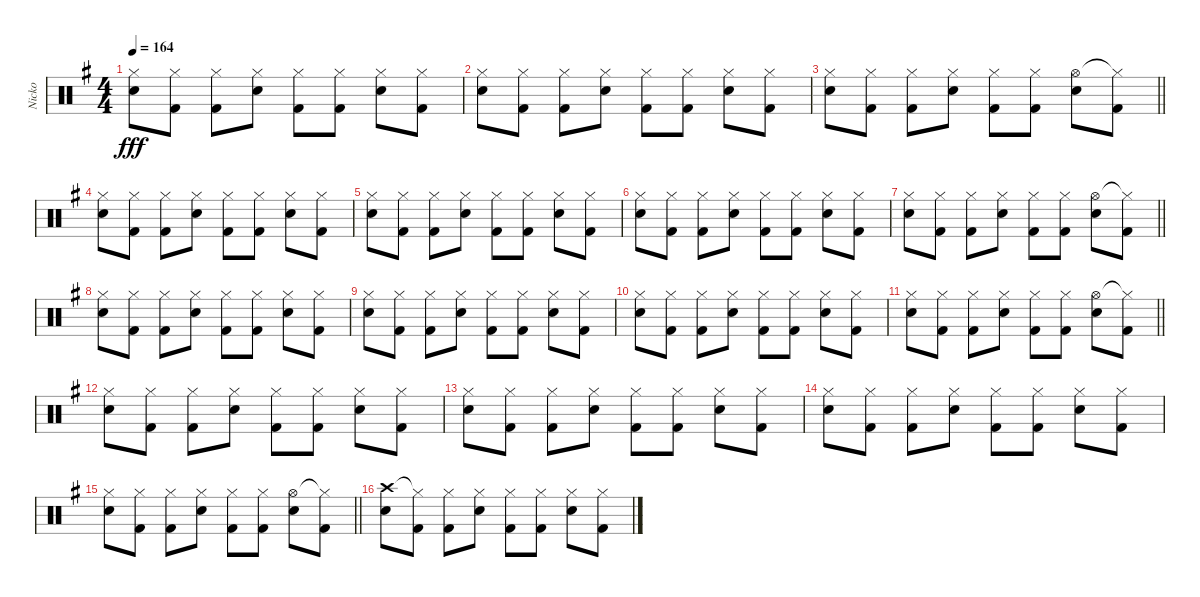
\track ("Nicko" "Nicko") {instrument percussion}
\staff {score}
\articulation defaults
\ts (4 4)
\tempo 164
\clef neutral
\ks eminor
("Hi-Hat (closed)" "Snare (hit) 2").8{dy fff} ("Hi-Hat (closed)" "Kick (hit) 2").8 ("Hi-Hat (closed)" "Kick (hit) 2").8 ("Hi-Hat (closed)" "Snare (hit) 2").8 ("Hi-Hat (closed)" "Kick (hit) 2").8 ("Hi-Hat (closed)" "Kick (hit) 2").8 ("Hi-Hat (closed)" "Snare (hit) 2").8 ("Hi-Hat (closed)" "Kick (hit) 2").8 |
("Hi-Hat (closed)" "Snare (hit) 2").8 ("Hi-Hat (closed)" "Kick (hit) 2").8 ("Hi-Hat (closed)" "Kick (hit) 2").8 ("Hi-Hat (closed)" "Snare (hit) 2").8 ("Hi-Hat (closed)" "Kick (hit) 2").8 ("Hi-Hat (closed)" "Kick (hit) 2").8 ("Hi-Hat (closed)" "Snare (hit) 2").8 ("Hi-Hat (closed)" "Kick (hit) 2").8 |
\barLineRight lightlight
("Hi-Hat (closed)" "Snare (hit) 2").8 ("Hi-Hat (closed)" "Kick (hit) 2").8 ("Hi-Hat (closed)" "Kick (hit) 2").8 ("Hi-Hat (closed)" "Snare (hit) 2").8 ("Hi-Hat (closed)" "Kick (hit) 2").8 ("Hi-Hat (closed)" "Kick (hit) 2").8 ("Hi-Hat (open)" "Snare (hit) 2").8 ("Hi-Hat (closed)"{t} "Kick (hit) 2").8 |
("Hi-Hat (closed)" "Snare (hit) 2").8 ("Hi-Hat (closed)" "Kick (hit) 2").8 ("Hi-Hat (closed)" "Kick (hit) 2").8 ("Hi-Hat (closed)" "Snare (hit) 2").8 ("Hi-Hat (closed)" "Kick (hit) 2").8 ("Hi-Hat (closed)" "Kick (hit) 2").8 ("Hi-Hat (closed)" "Snare (hit) 2").8 ("Hi-Hat (closed)" "Kick (hit) 2").8 |
("Hi-Hat (closed)" "Snare (hit) 2").8 ("Hi-Hat (closed)" "Kick (hit) 2").8 ("Hi-Hat (closed)" "Kick (hit) 2").8 ("Hi-Hat (closed)" "Snare (hit) 2").8 ("Hi-Hat (closed)" "Kick (hit) 2").8 ("Hi-Hat (closed)" "Kick (hit) 2").8 ("Hi-Hat (closed)" "Snare (hit) 2").8 ("Hi-Hat (closed)" "Kick (hit) 2").8 |
("Hi-Hat (closed)" "Snare (hit) 2").8 ("Hi-Hat (closed)" "Kick (hit) 2").8 ("Hi-Hat (closed)" "Kick (hit) 2").8 ("Hi-Hat (closed)" "Snare (hit) 2").8 ("Hi-Hat (closed)" "Kick (hit) 2").8 ("Hi-Hat (closed)" "Kick (hit) 2").8 ("Hi-Hat (closed)" "Snare (hit) 2").8 ("Hi-Hat (closed)" "Kick (hit) 2").8 |
\barLineRight lightlight
("Hi-Hat (closed)" "Snare (hit) 2").8 ("Hi-Hat (closed)" "Kick (hit) 2").8 ("Hi-Hat (closed)" "Kick (hit) 2").8 ("Hi-Hat (closed)" "Snare (hit) 2").8 ("Hi-Hat (closed)" "Kick (hit) 2").8 ("Hi-Hat (closed)" "Kick (hit) 2").8 ("Hi-Hat (open)" "Snare (hit) 2").8 ("Hi-Hat (closed)"{t} "Kick (hit) 2").8 |
("Hi-Hat (closed)" "Snare (hit) 2").8 ("Hi-Hat (closed)" "Kick (hit) 2").8 ("Hi-Hat (closed)" "Kick (hit) 2").8 ("Hi-Hat (closed)" "Snare (hit) 2").8 ("Hi-Hat (closed)" "Kick (hit) 2").8 ("Hi-Hat (closed)" "Kick (hit) 2").8 ("Hi-Hat (closed)" "Snare (hit) 2").8 ("Hi-Hat (closed)" "Kick (hit) 2").8 |
("Hi-Hat (closed)" "Snare (hit) 2").8 ("Hi-Hat (closed)" "Kick (hit) 2").8 ("Hi-Hat (closed)" "Kick (hit) 2").8 ("Hi-Hat (closed)" "Snare (hit) 2").8 ("Hi-Hat (closed)" "Kick (hit) 2").8 ("Hi-Hat (closed)" "Kick (hit) 2").8 ("Hi-Hat (closed)" "Snare (hit) 2").8 ("Hi-Hat (closed)" "Kick (hit) 2").8 |
("Hi-Hat (closed)" "Snare (hit) 2").8 ("Hi-Hat (closed)" "Kick (hit) 2").8 ("Hi-Hat (closed)" "Kick (hit) 2").8 ("Hi-Hat (closed)" "Snare (hit) 2").8 ("Hi-Hat (closed)" "Kick (hit) 2").8 ("Hi-Hat (closed)" "Kick (hit) 2").8 ("Hi-Hat (closed)" "Snare (hit) 2").8 ("Hi-Hat (closed)" "Kick (hit) 2").8 |
\barLineRight lightlight
("Hi-Hat (closed)" "Snare (hit) 2").8 ("Hi-Hat (closed)" "Kick (hit) 2").8 ("Hi-Hat (closed)" "Kick (hit) 2").8 ("Hi-Hat (closed)" "Snare (hit) 2").8 ("Hi-Hat (closed)" "Kick (hit) 2").8 ("Hi-Hat (closed)" "Kick (hit) 2").8 ("Hi-Hat (open)" "Snare (hit) 2").8 ("Hi-Hat (closed)"{t} "Kick (hit) 2").8 |
("Hi-Hat (closed)" "Snare (hit) 2").8 ("Hi-Hat (closed)" "Kick (hit) 2").8 ("Hi-Hat (closed)" "Kick (hit) 2").8 ("Hi-Hat (closed)" "Snare (hit) 2").8 ("Hi-Hat (closed)" "Kick (hit) 2").8 ("Hi-Hat (closed)" "Kick (hit) 2").8 ("Hi-Hat (closed)" "Snare (hit) 2").8 ("Hi-Hat (closed)" "Kick (hit) 2").8 |
("Hi-Hat (closed)" "Snare (hit) 2").8 ("Hi-Hat (closed)" "Kick (hit) 2").8 ("Hi-Hat (closed)" "Kick (hit) 2").8 ("Hi-Hat (closed)" "Snare (hit) 2").8 ("Hi-Hat (closed)" "Kick (hit) 2").8 ("Hi-Hat (closed)" "Kick (hit) 2").8 ("Hi-Hat (closed)" "Snare (hit) 2").8 ("Hi-Hat (closed)" "Kick (hit) 2").8 |
("Hi-Hat (closed)" "Snare (hit) 2").8 ("Hi-Hat (closed)" "Kick (hit) 2").8 ("Hi-Hat (closed)" "Kick (hit) 2").8 ("Hi-Hat (closed)" "Snare (hit) 2").8 ("Hi-Hat (closed)" "Kick (hit) 2").8 ("Hi-Hat (closed)" "Kick (hit) 2").8 ("Hi-Hat (closed)" "Snare (hit) 2").8 ("Hi-Hat (closed)" "Kick (hit) 2").8 |
\barLineRight lightlight
("Hi-Hat (closed)" "Snare (hit) 2").8 ("Hi-Hat (closed)" "Kick (hit) 2").8 ("Hi-Hat (closed)" "Kick (hit) 2").8 ("Hi-Hat (closed)" "Snare (hit) 2").8 ("Hi-Hat (closed)" "Kick (hit) 2").8 ("Hi-Hat (closed)" "Kick (hit) 2").8 ("Hi-Hat (open)" "Snare (hit) 2").8 ("Hi-Hat (closed)"{t} "Kick (hit) 2").8 |
("Crash high (hit)" "Snare (hit) 2").8 ("Hi-Hat (closed)"{t} "Kick (hit) 2").8 ("Hi-Hat (closed)" "Kick (hit) 2").8 ("Hi-Hat (closed)" "Snare (hit) 2").8 ("Hi-Hat (closed)" "Kick (hit) 2").8 ("Hi-Hat (closed)" "Kick (hit) 2").8 ("Hi-Hat (closed)" "Snare (hit) 2").8 ("Hi-Hat (closed)" "Kick (hit) 2").8
